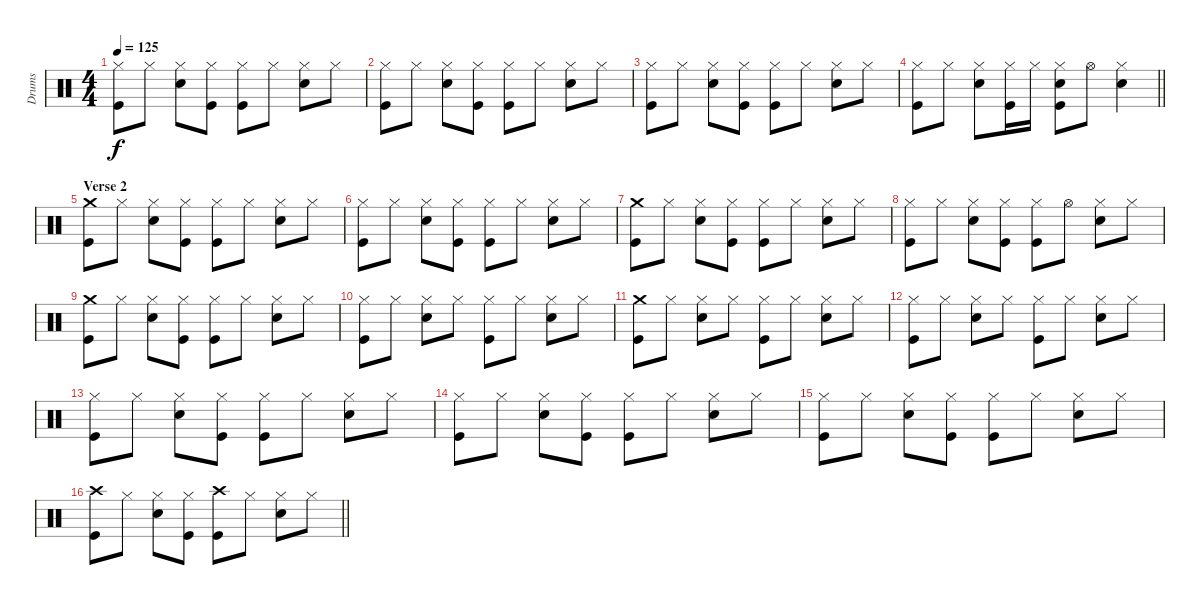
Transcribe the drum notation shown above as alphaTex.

\track ("Drums" "Drums") {instrument percussion}
\staff {score}
\articulation defaults
\ts (4 4)
\tempo 125
\clef neutral
\ks c
("Hi-Hat (closed)" "Kick (hit)").8{dy f} "Hi-Hat (closed)".8 ("Hi-Hat (closed)" "Electric Snare (hit)").8 ("Hi-Hat (closed)" "Kick (hit)").8 ("Hi-Hat (closed)" "Kick (hit)").8 "Hi-Hat (closed)".8 ("Hi-Hat (closed)" "Electric Snare (hit)").8 "Hi-Hat (closed)".8 |
("Hi-Hat (closed)" "Kick (hit)").8 "Hi-Hat (closed)".8 ("Hi-Hat (closed)" "Electric Snare (hit)").8 ("Hi-Hat (closed)" "Kick (hit)").8 ("Hi-Hat (closed)" "Kick (hit)").8 "Hi-Hat (closed)".8 ("Hi-Hat (closed)" "Electric Snare (hit)").8 "Hi-Hat (closed)".8 |
("Hi-Hat (closed)" "Kick (hit)").8 "Hi-Hat (closed)".8 ("Hi-Hat (closed)" "Electric Snare (hit)").8 ("Hi-Hat (closed)" "Kick (hit)").8 ("Hi-Hat (closed)" "Kick (hit)").8 "Hi-Hat (closed)".8 ("Hi-Hat (closed)" "Electric Snare (hit)").8 "Hi-Hat (closed)".8 |
\barLineRight lightlight
("Hi-Hat (closed)" "Kick (hit)").8 "Hi-Hat (closed)".8 ("Hi-Hat (closed)" "Electric Snare (hit)").8 ("Hi-Hat (closed)" "Kick (hit)").16 "Hi-Hat (closed)".16 ("Hi-Hat (closed)" "Electric Snare (hit)" "Kick (hit)").8 "Hi-Hat (open)".8 ("Hi-Hat (closed)" "Electric Snare (hit)").4 |
\section ("" "Verse 2")
("Crash medium (hit)" "Kick (hit)").8 "Hi-Hat (closed)".8 ("Hi-Hat (closed)" "Electric Snare (hit)").8 ("Hi-Hat (closed)" "Kick (hit)").8 ("Hi-Hat (closed)" "Kick (hit)").8 "Hi-Hat (closed)".8 ("Hi-Hat (closed)" "Electric Snare (hit)").8 "Hi-Hat (closed)".8 |
("Hi-Hat (closed)" "Kick (hit)").8 "Hi-Hat (closed)".8 ("Hi-Hat (closed)" "Electric Snare (hit)").8 ("Hi-Hat (closed)" "Kick (hit)").8 ("Hi-Hat (closed)" "Kick (hit)").8 "Hi-Hat (closed)".8 ("Hi-Hat (closed)" "Electric Snare (hit)").8 "Hi-Hat (closed)".8 |
("Crash medium (hit)" "Kick (hit)").8 "Hi-Hat (closed)".8 ("Hi-Hat (closed)" "Electric Snare (hit)").8 ("Hi-Hat (closed)" "Kick (hit)").8 ("Hi-Hat (closed)" "Kick (hit)").8 "Hi-Hat (closed)".8 ("Hi-Hat (closed)" "Electric Snare (hit)").8 "Hi-Hat (closed)".8 |
("Hi-Hat (closed)" "Kick (hit)").8 "Hi-Hat (closed)".8 ("Hi-Hat (closed)" "Electric Snare (hit)").8 ("Hi-Hat (closed)" "Kick (hit)").8 ("Hi-Hat (closed)" "Kick (hit)").8 "Hi-Hat (open)".8 ("Hi-Hat (closed)" "Electric Snare (hit)").8 "Hi-Hat (closed)".8 |
("Crash medium (hit)" "Kick (hit)").8 "Hi-Hat (closed)".8 ("Hi-Hat (closed)" "Electric Snare (hit)").8 ("Hi-Hat (closed)" "Kick (hit)").8 ("Hi-Hat (closed)" "Kick (hit)").8 "Hi-Hat (closed)".8 ("Hi-Hat (closed)" "Electric Snare (hit)").8 "Hi-Hat (closed)".8 |
("Hi-Hat (closed)" "Kick (hit)").8 "Hi-Hat (closed)".8 ("Hi-Hat (closed)" "Electric Snare (hit)").8 "Hi-Hat (closed)".8 ("Hi-Hat (closed)" "Kick (hit)").8 "Hi-Hat (closed)".8 ("Hi-Hat (closed)" "Electric Snare (hit)").8 "Hi-Hat (closed)".8 |
("Crash medium (hit)" "Kick (hit)").8 "Hi-Hat (closed)".8 ("Hi-Hat (closed)" "Electric Snare (hit)").8 "Hi-Hat (closed)".8 ("Hi-Hat (closed)" "Kick (hit)").8 "Hi-Hat (closed)".8 ("Hi-Hat (closed)" "Electric Snare (hit)").8 "Hi-Hat (closed)".8 |
("Hi-Hat (closed)" "Kick (hit)").8 "Hi-Hat (closed)".8 ("Hi-Hat (closed)" "Electric Snare (hit)").8 "Hi-Hat (closed)".8 ("Hi-Hat (closed)" "Kick (hit)").8 "Hi-Hat (closed)".8 ("Hi-Hat (closed)" "Electric Snare (hit)").8 "Hi-Hat (closed)".8 |
("Hi-Hat (closed)" "Kick (hit)").8 "Hi-Hat (closed)".8 ("Hi-Hat (closed)" "Electric Snare (hit)").8 ("Hi-Hat (closed)" "Kick (hit)").8 ("Hi-Hat (closed)" "Kick (hit)").8 "Hi-Hat (closed)".8 ("Hi-Hat (closed)" "Electric Snare (hit)").8 "Hi-Hat (closed)".8 |
("Hi-Hat (closed)" "Kick (hit)").8 "Hi-Hat (closed)".8 ("Hi-Hat (closed)" "Electric Snare (hit)").8 ("Hi-Hat (closed)" "Kick (hit)").8 ("Hi-Hat (closed)" "Kick (hit)").8 "Hi-Hat (closed)".8 ("Hi-Hat (closed)" "Electric Snare (hit)").8 "Hi-Hat (closed)".8 |
("Hi-Hat (closed)" "Kick (hit)").8 "Hi-Hat (closed)".8 ("Hi-Hat (closed)" "Electric Snare (hit)").8 ("Hi-Hat (closed)" "Kick (hit)").8 ("Hi-Hat (closed)" "Kick (hit)").8 "Hi-Hat (closed)".8 ("Hi-Hat (closed)" "Electric Snare (hit)").8 "Hi-Hat (closed)".8 |
\barLineRight lightlight
("Crash high (hit)" "Kick (hit)").8 "Hi-Hat (closed)".8 ("Hi-Hat (closed)" "Electric Snare (hit)").8 ("Hi-Hat (closed)" "Kick (hit)").8 ("Crash high (hit)" "Kick (hit)").8 "Hi-Hat (closed)".8 ("Hi-Hat (closed)" "Electric Snare (hit)").8 "Hi-Hat (closed)".8
